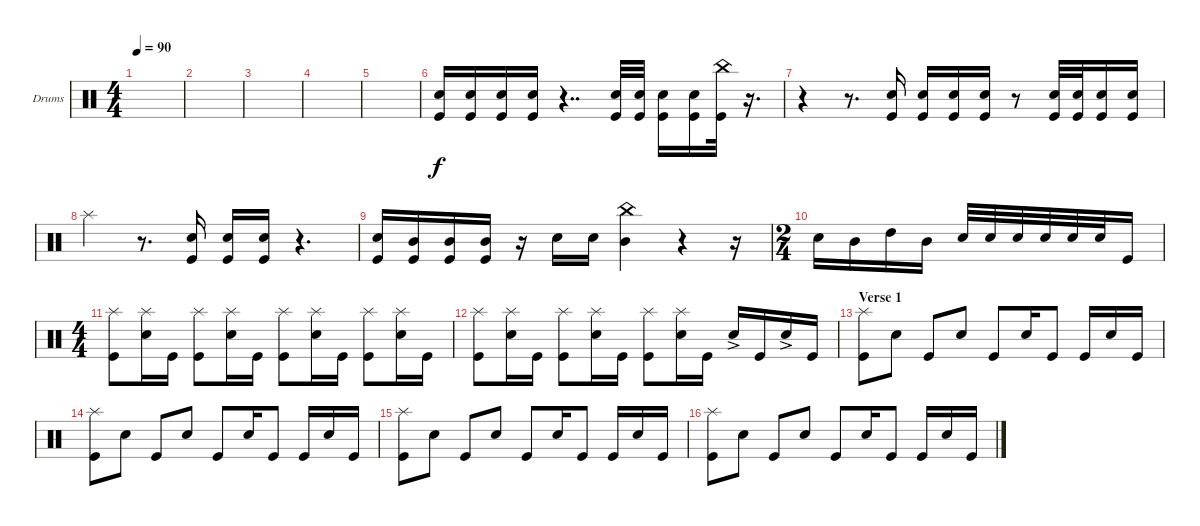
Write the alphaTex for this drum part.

\defaultSystemsLayout 4
\bracketExtendMode groupsimilarinstruments
\firstSystemTrackNameOrientation horizontal
\otherSystemsTrackNameOrientation horizontal
\track ("Drumkit" "Drums") {instrument percussion}
\staff {score}
\articulation defaults
\ts (4 4)
\tempo 90
\clef neutral
\ks c
|
\scale
0.472222 |
\scale
0.263889 |
\scale
0.263889 |
\scale
0.333333 |
\scale
0.333333 ("Snare (hit) 2" "Kick (hit)").16 ("Kick (hit)" "Snare (hit) 2").16 ("Kick (hit)" "Snare (hit) 2").16 ("Kick (hit)" "Snare (hit) 2").16 r.4{dd} ("Kick (hit)" "Snare (hit) 2").32 ("Kick (hit)" "Snare (hit) 2").32 ("Kick (hit)" "Snare (hit) 2").16 ("Kick (hit)" "Snare (hit) 2").16 ("Kick (hit)" "China (hit)").32 r.16{d} |
\scale
0.333333 r.4 r.8{d} ("Snare (hit) 2" "Kick (hit)").16 ("Kick (hit)" "Snare (hit) 2").16 ("Kick (hit)" "Snare (hit) 2").16 ("Kick (hit)" "Snare (hit) 2").16 r.8 ("Kick (hit)" "Snare (hit) 2").32 ("Kick (hit)" "Snare (hit) 2").32 ("Kick (hit)" "Snare (hit) 2").16 ("Kick (hit)" "Snare (hit) 2").16 |
"Splash (hit)".4 r.8{d} ("Kick (hit)" "Snare (hit) 2").16 ("Kick (hit)" "Snare (hit) 2").16 ("Kick (hit)" "Snare (hit) 2").16 r.4{d} |
("Snare (hit) 2" "Kick (hit)").16 ("Kick (hit)" "Mid Tom (hit)").16 ("Kick (hit)" "Mid Tom (hit)").16 ("Kick (hit)" "Mid Tom (hit)").16 r.16 "Snare (hit) 2".16 "Snare (hit) 2".16 ("China (hit)" "Mid Tom (hit)").4 r.4 r.16 |
\ts (2 4)
"Snare (hit) 2".16 "Mid Tom (hit)".16 "High Tom (hit)".16 "Mid Tom (hit)".16 "Snare (hit) 2".32 "Snare (hit) 2".32 "Snare (hit) 2".32 "Snare (hit) 2".32 "Snare (hit) 2".32 "Snare (hit) 2".32 "Kick (hit)".16 |
\ts (4 4)
("Kick (hit)" "Splash (hit)").8 ("Snare (hit) 2" "Splash (hit)").16 "Kick (hit)".16 ("Kick (hit)" "Splash (hit)").8 ("Snare (hit) 2" "Splash (hit)").16 "Kick (hit)".16 ("Kick (hit)" "Splash (hit)").8 ("Snare (hit) 2" "Splash (hit)").16 "Kick (hit)".16 ("Kick (hit)" "Splash (hit)").8 ("Snare (hit) 2" "Splash (hit)").16 "Kick (hit)".16 |
("Kick (hit)" "Splash (hit)").8 ("Snare (hit) 2" "Splash (hit)").16 "Kick (hit)".16 ("Kick (hit)" "Splash (hit)").8 ("Snare (hit) 2" "Splash (hit)").16 "Kick (hit)".16 ("Kick (hit)" "Splash (hit)").8 ("Snare (hit) 2" "Splash (hit)").16 "Kick (hit)".16 "Snare (hit) 2"{ac}.16 "Kick (hit)".16 "Snare (hit) 2"{ac}.16 "Kick (hit)".16 |
\section ("" "Verse 1")
("Kick (hit)" "Splash (hit)").8 "Snare (hit) 2".8 "Kick (hit)".8 "Snare (hit) 2".8 "Kick (hit)".8 "Snare (hit) 2".16 "Kick (hit)".8 "Kick (hit)".16 "Snare (hit) 2".16 "Kick (hit)".16 |
("Kick (hit)" "Splash (hit)").8 "Snare (hit) 2".8 "Kick (hit)".8 "Snare (hit) 2".8 "Kick (hit)".8 "Snare (hit) 2".16 "Kick (hit)".8 "Kick (hit)".16 "Snare (hit) 2".16 "Kick (hit)".16 |
("Kick (hit)" "Splash (hit)").8 "Snare (hit) 2".8 "Kick (hit)".8 "Snare (hit) 2".8 "Kick (hit)".8 "Snare (hit) 2".16 "Kick (hit)".8 "Kick (hit)".16 "Snare (hit) 2".16 "Kick (hit)".16 |
("Kick (hit)" "Splash (hit)").8 "Snare (hit) 2".8 "Kick (hit)".8 "Snare (hit) 2".8 "Kick (hit)".8 "Snare (hit) 2".16 "Kick (hit)".8 "Kick (hit)".16 "Snare (hit) 2".16 "Kick (hit)".16
